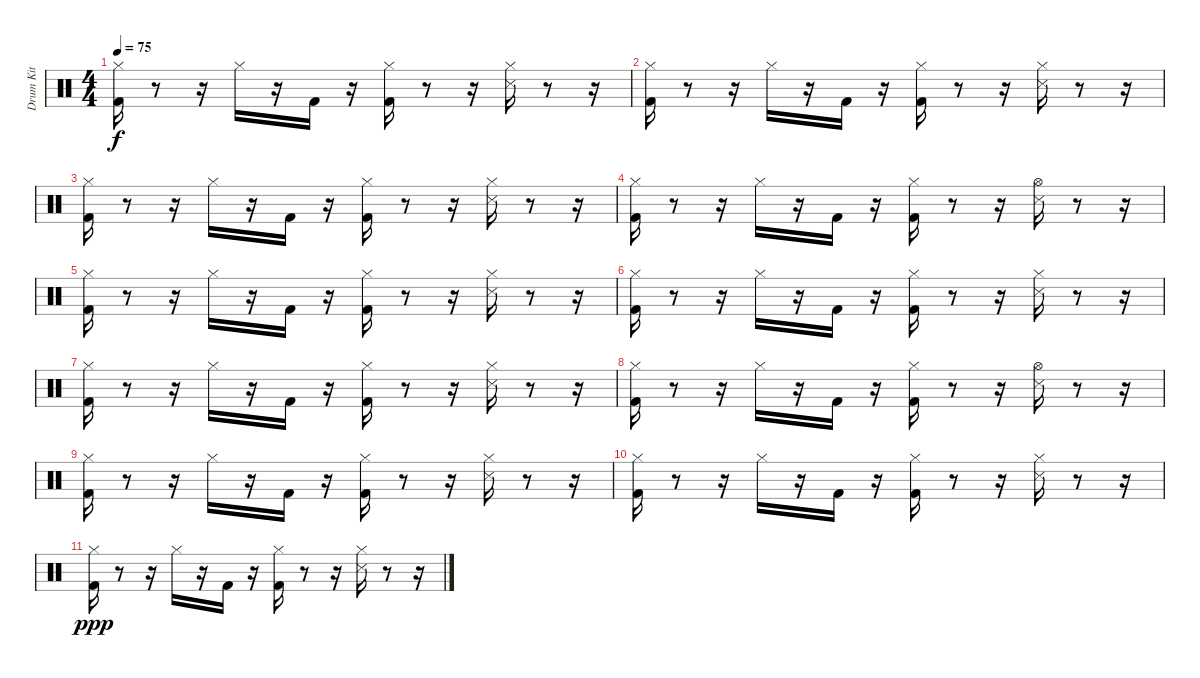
\track ("Drum Kit" "Drum Kit") {instrument percussion}
\staff {score}
\articulation defaults
\ts (4 4)
\tempo 75
\clef neutral
\ks c
("Hi-Hat (closed)" "Kick (hit) 2").16{dy f} r.8 r.16 "Hi-Hat (closed)".16 r.16 "Kick (hit) 2".16 r.16 ("Kick (hit) 2" "Hi-Hat (closed)").16 r.8 r.16 ("Snare (side stick) 3" "Hi-Hat (closed)").16 r.8 r.16 |
("Kick (hit) 2" "Hi-Hat (closed)").16 r.8 r.16 "Hi-Hat (closed)".16 r.16 "Kick (hit) 2".16 r.16 ("Kick (hit) 2" "Hi-Hat (closed)").16 r.8 r.16 ("Snare (side stick) 3" "Hi-Hat (closed)").16 r.8 r.16 |
("Hi-Hat (closed)" "Kick (hit) 2").16 r.8 r.16 "Hi-Hat (closed)".16 r.16 "Kick (hit) 2".16 r.16 ("Kick (hit) 2" "Hi-Hat (closed)").16 r.8 r.16 ("Snare (side stick) 3" "Hi-Hat (closed)").16 r.8 r.16 |
("Hi-Hat (closed)" "Kick (hit) 2").16 r.8 r.16 "Hi-Hat (closed)".16 r.16 "Kick (hit) 2".16 r.16 ("Kick (hit) 2" "Hi-Hat (closed)").16 r.8 r.16 ("Snare (side stick) 3" "Hi-Hat (open)").16 r.8 r.16 |
("Hi-Hat (closed)" "Kick (hit) 2").16 r.8 r.16 "Hi-Hat (closed)".16 r.16 "Kick (hit) 2".16 r.16 ("Kick (hit) 2" "Hi-Hat (closed)").16 r.8 r.16 ("Snare (side stick) 3" "Hi-Hat (closed)").16 r.8 r.16 |
("Kick (hit) 2" "Hi-Hat (closed)").16 r.8 r.16 "Hi-Hat (closed)".16 r.16 "Kick (hit) 2".16 r.16 ("Kick (hit) 2" "Hi-Hat (closed)").16 r.8 r.16 ("Snare (side stick) 3" "Hi-Hat (closed)").16 r.8 r.16 |
("Hi-Hat (closed)" "Kick (hit) 2").16 r.8 r.16 "Hi-Hat (closed)".16 r.16 "Kick (hit) 2".16 r.16 ("Kick (hit) 2" "Hi-Hat (closed)").16 r.8 r.16 ("Snare (side stick) 3" "Hi-Hat (closed)").16 r.8 r.16 |
("Hi-Hat (closed)" "Kick (hit) 2").16 r.8 r.16 "Hi-Hat (closed)".16 r.16 "Kick (hit) 2".16 r.16 ("Kick (hit) 2" "Hi-Hat (closed)").16 r.8 r.16 ("Snare (side stick) 3" "Hi-Hat (open)").16 r.8 r.16 |
("Hi-Hat (closed)" "Kick (hit) 2").16 r.8 r.16 "Hi-Hat (closed)".16 r.16 "Kick (hit) 2".16 r.16 ("Kick (hit) 2" "Hi-Hat (closed)").16 r.8 r.16 ("Snare (side stick) 3" "Hi-Hat (closed)").16 r.8 r.16 |
("Kick (hit) 2" "Hi-Hat (closed)").16 r.8 r.16 "Hi-Hat (closed)".16 r.16 "Kick (hit) 2".16 r.16 ("Kick (hit) 2" "Hi-Hat (closed)").16 r.8 r.16 ("Snare (side stick) 3" "Hi-Hat (closed)").16 r.8 r.16 |
("Hi-Hat (closed)" "Kick (hit) 2").16{dy ppp} r.8 r.16 "Hi-Hat (closed)".16 r.16 "Kick (hit) 2".16 r.16 ("Kick (hit) 2" "Hi-Hat (closed)").16 r.8 r.16 ("Snare (side stick) 3" "Hi-Hat (closed)").16 r.8 r.16
